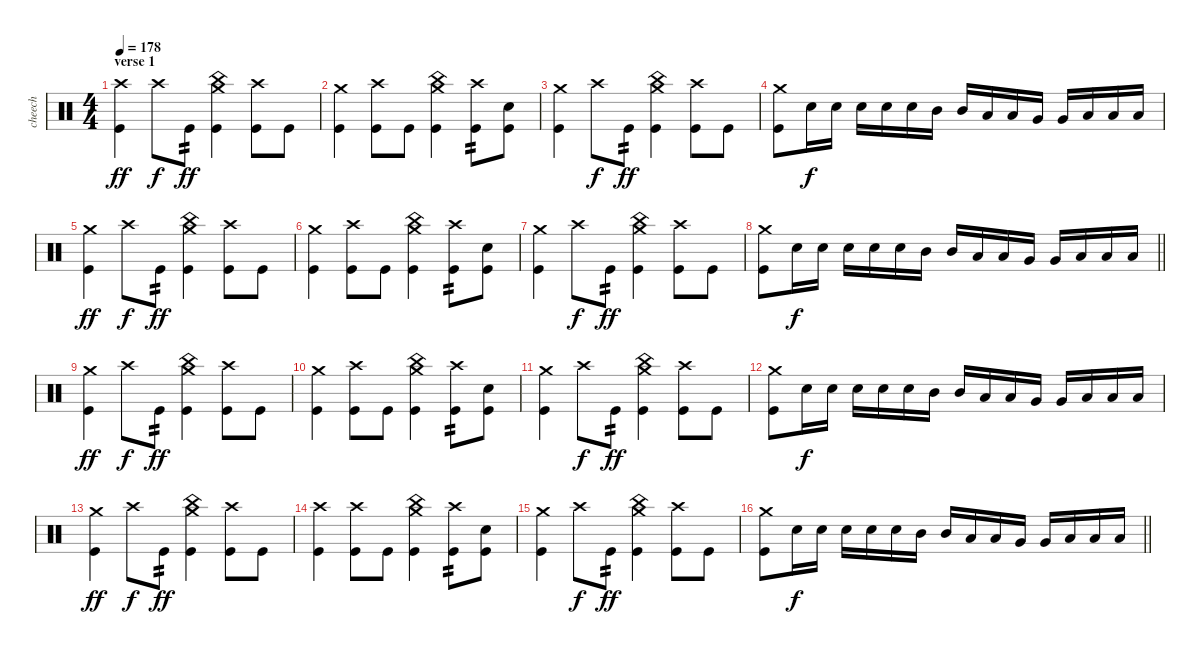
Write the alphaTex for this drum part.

\track ("cheech" "cheech") {solo instrument percussion}
\staff {score}
\articulation defaults
\ts (4 4)
\section ("" "verse 1")
\tempo 178
\clef neutral
\ks c
("Crash high (hit)" "Kick (hit)").4{dy ff} "Crash high (hit)".8{dy f} "Kick (hit)".8{tp 2 dy ff} ("China (hit)" "Crash medium (hit)" "Kick (hit)").4 ("Crash high (hit)" "Kick (hit)").8 "Kick (hit)".8 |
("Crash medium (hit)" "Kick (hit)").4 ("Crash high (hit)" "Kick (hit)").8 "Kick (hit)".8 ("China (hit)" "Crash medium (hit)" "Kick (hit)").4 ("Crash high (hit)" "Kick (hit)").8{tp 2} ("Electric Snare (hit)" "Kick (hit)").8 |
("Crash medium (hit)" "Kick (hit)").4 "Crash high (hit)".8{dy f} "Kick (hit)".8{tp 2 dy ff} ("China (hit)" "Crash medium (hit)" "Kick (hit)").4 ("Crash high (hit)" "Kick (hit)").8 "Kick (hit)".8 |
("Crash medium (hit)" "Kick (hit)").8 "Electric Snare (hit)".16{dy f} "Electric Snare (hit)".16 "Electric Snare (hit)".16 "Electric Snare (hit)".16 "Electric Snare (hit)".16 "Mid Tom (hit)".16 "Mid Tom (hit)".16 "Low Tom (hit)".16 "Low Tom (hit)".16 "Very Low Tom (hit)".16 "Very Low Tom (hit)".16 "Low Floor Tom (hit)".16 "Low Floor Tom (hit)".16 "Low Floor Tom (hit)".16 |
("Crash medium (hit)" "Kick (hit)").4{dy ff} "Crash high (hit)".8{dy f} "Kick (hit)".8{tp 2 dy ff} ("China (hit)" "Crash medium (hit)" "Kick (hit)").4 ("Crash high (hit)" "Kick (hit)").8 "Kick (hit)".8 |
("Crash medium (hit)" "Kick (hit)").4 ("Crash high (hit)" "Kick (hit)").8 "Kick (hit)".8 ("China (hit)" "Crash medium (hit)" "Kick (hit)").4 ("Crash high (hit)" "Kick (hit)").8{tp 2} ("Electric Snare (hit)" "Kick (hit)").8 |
("Crash medium (hit)" "Kick (hit)").4 "Crash high (hit)".8{dy f} "Kick (hit)".8{tp 2 dy ff} ("China (hit)" "Crash medium (hit)" "Kick (hit)").4 ("Crash high (hit)" "Kick (hit)").8 "Kick (hit)".8 |
\barLineRight lightlight
("Crash medium (hit)" "Kick (hit)").8 "Electric Snare (hit)".16{dy f} "Electric Snare (hit)".16 "Electric Snare (hit)".16 "Electric Snare (hit)".16 "Electric Snare (hit)".16 "Mid Tom (hit)".16 "Mid Tom (hit)".16 "Low Tom (hit)".16 "Low Tom (hit)".16 "Very Low Tom (hit)".16 "Very Low Tom (hit)".16 "Low Floor Tom (hit)".16 "Low Floor Tom (hit)".16 "Low Floor Tom (hit)".16 |
("Crash medium (hit)" "Kick (hit)").4{dy ff} "Crash high (hit)".8{dy f} "Kick (hit)".8{tp 2 dy ff} ("China (hit)" "Crash medium (hit)" "Kick (hit)").4 ("Crash high (hit)" "Kick (hit)").8 "Kick (hit)".8 |
("Crash medium (hit)" "Kick (hit)").4 ("Crash high (hit)" "Kick (hit)").8 "Kick (hit)".8 ("China (hit)" "Crash medium (hit)" "Kick (hit)").4 ("Crash high (hit)" "Kick (hit)").8{tp 2} ("Electric Snare (hit)" "Kick (hit)").8 |
("Crash medium (hit)" "Kick (hit)").4 "Crash high (hit)".8{dy f} "Kick (hit)".8{tp 2 dy ff} ("China (hit)" "Crash medium (hit)" "Kick (hit)").4 ("Crash high (hit)" "Kick (hit)").8 "Kick (hit)".8 |
("Crash medium (hit)" "Kick (hit)").8 "Electric Snare (hit)".16{dy f} "Electric Snare (hit)".16 "Electric Snare (hit)".16 "Electric Snare (hit)".16 "Electric Snare (hit)".16 "Mid Tom (hit)".16 "Mid Tom (hit)".16 "Low Tom (hit)".16 "Low Tom (hit)".16 "Very Low Tom (hit)".16 "Very Low Tom (hit)".16 "Low Floor Tom (hit)".16 "Low Floor Tom (hit)".16 "Low Floor Tom (hit)".16 |
("Crash medium (hit)" "Kick (hit)").4{dy ff} "Crash high (hit)".8{dy f} "Kick (hit)".8{tp 2 dy ff} ("China (hit)" "Crash medium (hit)" "Kick (hit)").4 ("Crash high (hit)" "Kick (hit)").8 "Kick (hit)".8 |
("Crash high (hit)" "Kick (hit)").4 ("Crash high (hit)" "Kick (hit)").8 "Kick (hit)".8 ("China (hit)" "Crash medium (hit)" "Kick (hit)").4 ("Crash high (hit)" "Kick (hit)").8{tp 2} ("Electric Snare (hit)" "Kick (hit)").8 |
("Crash medium (hit)" "Kick (hit)").4 "Crash high (hit)".8{dy f} "Kick (hit)".8{tp 2 dy ff} ("China (hit)" "Crash medium (hit)" "Kick (hit)").4 ("Crash high (hit)" "Kick (hit)").8 "Kick (hit)".8 |
\barLineRight lightlight
("Crash medium (hit)" "Kick (hit)").8 "Electric Snare (hit)".16{dy f} "Electric Snare (hit)".16 "Electric Snare (hit)".16 "Electric Snare (hit)".16 "Electric Snare (hit)".16 "Mid Tom (hit)".16 "Mid Tom (hit)".16 "Low Tom (hit)".16 "Low Tom (hit)".16 "Very Low Tom (hit)".16 "Very Low Tom (hit)".16 "Low Floor Tom (hit)".16 "Low Floor Tom (hit)".16 "Low Floor Tom (hit)".16
